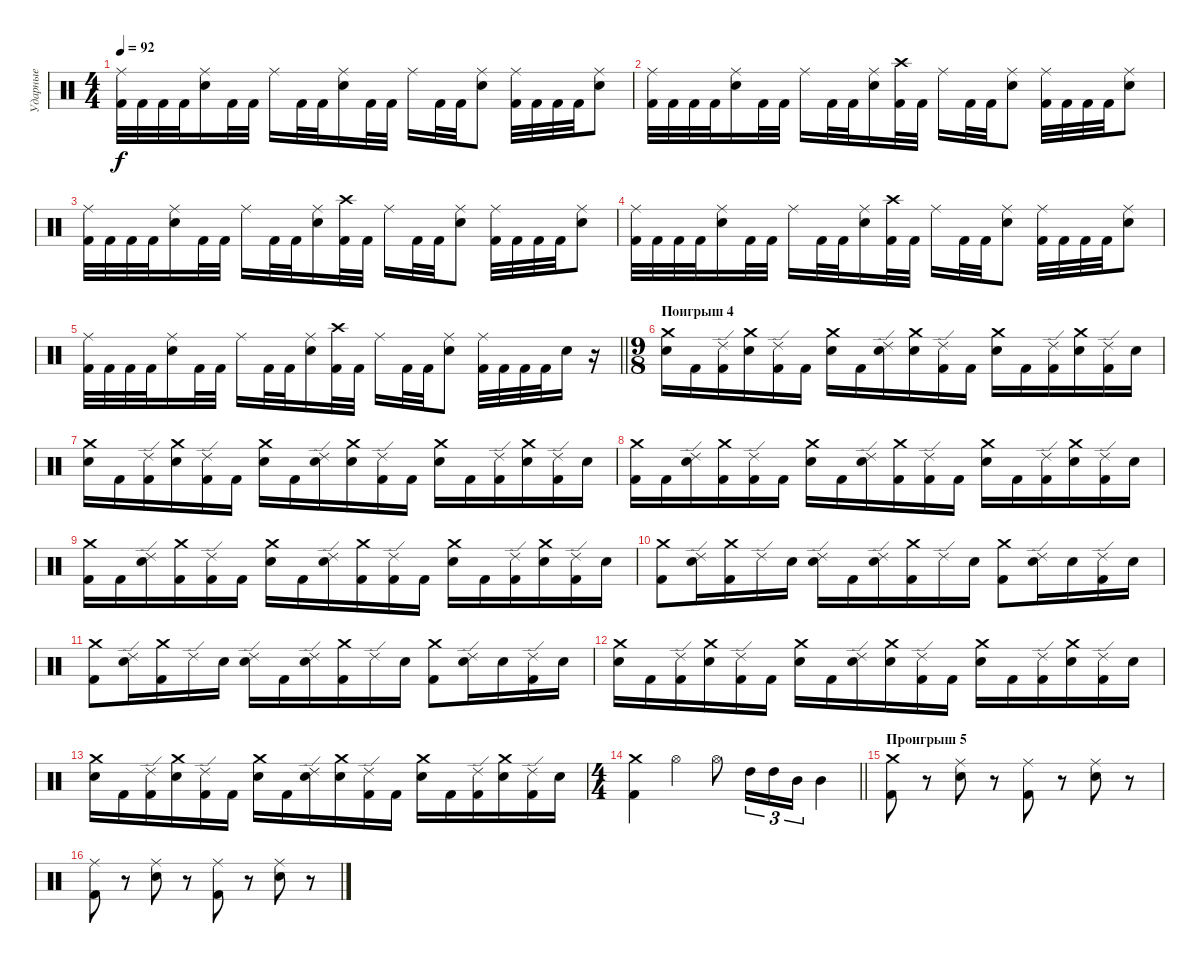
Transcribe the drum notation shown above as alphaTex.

\track ("Ударные" "Ударные") {instrument percussion}
\staff {score}
\articulation defaults
\ts (4 4)
\tempo 92
\clef neutral
\ks c
("Ride (middle)" "Kick (hit) 2").32{dy f} "Kick (hit) 2".32 "Kick (hit) 2".32 "Kick (hit) 2".32 ("Ride (middle)" "Electric Snare (hit)").16 "Kick (hit) 2".32 "Kick (hit) 2".32 "Ride (middle)".16 "Kick (hit) 2".32 "Kick (hit) 2".32 ("Electric Snare (hit)" "Ride (middle)").16 "Kick (hit) 2".32 "Kick (hit) 2".32 "Ride (middle)".16 "Kick (hit) 2".32 "Kick (hit) 2".32 ("Electric Snare (hit)" "Ride (middle)").8 ("Kick (hit) 2" "Ride (middle)").32 "Kick (hit) 2".32 "Kick (hit) 2".32 "Kick (hit) 2".32 ("Electric Snare (hit)" "Ride (middle)").8 |
("Ride (middle)" "Kick (hit) 2").32 "Kick (hit) 2".32 "Kick (hit) 2".32 "Kick (hit) 2".32 ("Ride (middle)" "Electric Snare (hit)").16 "Kick (hit) 2".32 "Kick (hit) 2".32 "Ride (middle)".16 "Kick (hit) 2".32 "Kick (hit) 2".32 ("Electric Snare (hit)" "Ride (middle)").16 ("Crash high (hit)" "Kick (hit) 2").32 "Kick (hit) 2".32 "Ride (middle)".16 "Kick (hit) 2".32 "Kick (hit) 2".32 ("Electric Snare (hit)" "Ride (middle)").8 ("Kick (hit) 2" "Ride (middle)").32 "Kick (hit) 2".32 "Kick (hit) 2".32 "Kick (hit) 2".32 ("Electric Snare (hit)" "Ride (middle)").8 |
("Ride (middle)" "Kick (hit) 2").32 "Kick (hit) 2".32 "Kick (hit) 2".32 "Kick (hit) 2".32 ("Ride (middle)" "Electric Snare (hit)").16 "Kick (hit) 2".32 "Kick (hit) 2".32 "Ride (middle)".16 "Kick (hit) 2".32 "Kick (hit) 2".32 ("Electric Snare (hit)" "Ride (middle)").16 ("Crash high (hit)" "Kick (hit) 2").32 "Kick (hit) 2".32 "Ride (middle)".16 "Kick (hit) 2".32 "Kick (hit) 2".32 ("Electric Snare (hit)" "Ride (middle)").8 ("Kick (hit) 2" "Ride (middle)").32 "Kick (hit) 2".32 "Kick (hit) 2".32 "Kick (hit) 2".32 ("Electric Snare (hit)" "Ride (middle)").8 |
("Ride (middle)" "Kick (hit) 2").32 "Kick (hit) 2".32 "Kick (hit) 2".32 "Kick (hit) 2".32 ("Ride (middle)" "Electric Snare (hit)").16 "Kick (hit) 2".32 "Kick (hit) 2".32 "Ride (middle)".16 "Kick (hit) 2".32 "Kick (hit) 2".32 ("Electric Snare (hit)" "Ride (middle)").16 ("Crash high (hit)" "Kick (hit) 2").32 "Kick (hit) 2".32 "Ride (middle)".16 "Kick (hit) 2".32 "Kick (hit) 2".32 ("Electric Snare (hit)" "Ride (middle)").8 ("Kick (hit) 2" "Ride (middle)").32 "Kick (hit) 2".32 "Kick (hit) 2".32 "Kick (hit) 2".32 ("Electric Snare (hit)" "Ride (middle)").8 |
\barLineRight lightlight
("Ride (middle)" "Kick (hit) 2").32 "Kick (hit) 2".32 "Kick (hit) 2".32 "Kick (hit) 2".32 ("Ride (middle)" "Electric Snare (hit)").16 "Kick (hit) 2".32 "Kick (hit) 2".32 "Ride (middle)".16 "Kick (hit) 2".32 "Kick (hit) 2".32 ("Electric Snare (hit)" "Ride (middle)").16 ("Crash high (hit)" "Kick (hit) 2").32 "Kick (hit) 2".32 "Ride (middle)".16 "Kick (hit) 2".32 "Kick (hit) 2".32 ("Electric Snare (hit)" "Ride (middle)").8 ("Kick (hit) 2" "Ride (middle)").32 "Kick (hit) 2".32 "Kick (hit) 2".32 "Kick (hit) 2".32 "Electric Snare (hit)".16 r.16 |
\ts (9 8)
\section ("" "Поигрыш 4")
("Crash medium (hit)" "Electric Snare (hit)").16 "Kick (hit) 2".16 ("Ride (edge) 2" "Kick (hit) 2").16 ("Crash medium (hit)" "Electric Snare (hit)").16 ("Ride (edge) 2" "Kick (hit) 2").16 "Kick (hit) 2".16 ("Crash medium (hit)" "Electric Snare (hit)").16 "Kick (hit) 2".16 ("Ride (edge) 2" "Electric Snare (hit)").16 ("Crash medium (hit)" "Electric Snare (hit)").16 ("Ride (edge) 2" "Kick (hit) 2").16 "Kick (hit) 2".16 ("Crash medium (hit)" "Electric Snare (hit)").16 "Kick (hit) 2".16 ("Ride (edge) 2" "Kick (hit) 2").16 ("Crash medium (hit)" "Electric Snare (hit)").16 ("Ride (edge) 2" "Kick (hit) 2").16 "Electric Snare (hit)".16 |
("Crash medium (hit)" "Electric Snare (hit)").16 "Kick (hit) 2".16 ("Ride (edge) 2" "Kick (hit) 2").16 ("Crash medium (hit)" "Electric Snare (hit)").16 ("Ride (edge) 2" "Kick (hit) 2").16 "Kick (hit) 2".16 ("Crash medium (hit)" "Electric Snare (hit)").16 "Kick (hit) 2".16 ("Ride (edge) 2" "Electric Snare (hit)").16 ("Crash medium (hit)" "Electric Snare (hit)").16 ("Ride (edge) 2" "Kick (hit) 2").16 "Kick (hit) 2".16 ("Crash medium (hit)" "Electric Snare (hit)").16 "Kick (hit) 2".16 ("Ride (edge) 2" "Kick (hit) 2").16 ("Crash medium (hit)" "Electric Snare (hit)").16 ("Ride (edge) 2" "Kick (hit) 2").16 "Electric Snare (hit)".16 |
("Kick (hit) 2" "Crash medium (hit)").16 "Kick (hit) 2".16 ("Electric Snare (hit)" "Ride (edge) 2").16 ("Kick (hit) 2" "Crash medium (hit)").16 ("Kick (hit) 2" "Ride (edge) 2").16 "Kick (hit) 2".16 ("Electric Snare (hit)" "Crash medium (hit)").16 "Kick (hit) 2".16 ("Electric Snare (hit)" "Ride (edge) 2").16 ("Kick (hit) 2" "Crash medium (hit)").16 ("Kick (hit) 2" "Ride (edge) 2").16 "Kick (hit) 2".16 ("Electric Snare (hit)" "Crash medium (hit)").16 "Kick (hit) 2".16 ("Kick (hit) 2" "Ride (edge) 2").16 ("Electric Snare (hit)" "Crash medium (hit)").16 ("Kick (hit) 2" "Ride (edge) 2").16 "Electric Snare (hit)".16 |
("Kick (hit) 2" "Crash medium (hit)").16 "Kick (hit) 2".16 ("Electric Snare (hit)" "Ride (edge) 2").16 ("Kick (hit) 2" "Crash medium (hit)").16 ("Kick (hit) 2" "Ride (edge) 2").16 "Kick (hit) 2".16 ("Electric Snare (hit)" "Crash medium (hit)").16 "Kick (hit) 2".16 ("Electric Snare (hit)" "Ride (edge) 2").16 ("Kick (hit) 2" "Crash medium (hit)").16 ("Kick (hit) 2" "Ride (edge) 2").16 "Kick (hit) 2".16 ("Electric Snare (hit)" "Crash medium (hit)").16 "Kick (hit) 2".16 ("Kick (hit) 2" "Ride (edge) 2").16 ("Electric Snare (hit)" "Crash medium (hit)").16 ("Kick (hit) 2" "Ride (edge) 2").16 "Electric Snare (hit)".16 |
("Crash medium (hit)" "Kick (hit) 2").8 ("Ride (edge) 2" "Electric Snare (hit)").16 ("Crash medium (hit)" "Kick (hit) 2").16 "Ride (edge) 2".16 "Electric Snare (hit)".16 ("Ride (edge) 2" "Electric Snare (hit)").16 "Kick (hit) 2".16 ("Ride (edge) 2" "Electric Snare (hit)").16 ("Crash medium (hit)" "Kick (hit) 2").16 "Ride (edge) 2".16 "Electric Snare (hit)".16 ("Crash medium (hit)" "Kick (hit) 2").8 ("Ride (edge) 2" "Electric Snare (hit)").16 "Electric Snare (hit)".16 ("Ride (edge) 2" "Kick (hit) 2").16 "Electric Snare (hit)".16 |
("Crash medium (hit)" "Kick (hit) 2").8 ("Ride (edge) 2" "Electric Snare (hit)").16 ("Crash medium (hit)" "Kick (hit) 2").16 "Ride (edge) 2".16 "Electric Snare (hit)".16 ("Ride (edge) 2" "Electric Snare (hit)").16 "Kick (hit) 2".16 ("Ride (edge) 2" "Electric Snare (hit)").16 ("Crash medium (hit)" "Kick (hit) 2").16 "Ride (edge) 2".16 "Electric Snare (hit)".16 ("Crash medium (hit)" "Kick (hit) 2").8 ("Ride (edge) 2" "Electric Snare (hit)").16 "Electric Snare (hit)".16 ("Ride (edge) 2" "Kick (hit) 2").16 "Electric Snare (hit)".16 |
("Crash medium (hit)" "Electric Snare (hit)").16 "Kick (hit) 2".16 ("Ride (edge) 2" "Kick (hit) 2").16 ("Crash medium (hit)" "Electric Snare (hit)").16 ("Ride (edge) 2" "Kick (hit) 2").16 "Kick (hit) 2".16 ("Crash medium (hit)" "Electric Snare (hit)").16 "Kick (hit) 2".16 ("Ride (edge) 2" "Electric Snare (hit)").16 ("Crash medium (hit)" "Electric Snare (hit)").16 ("Ride (edge) 2" "Kick (hit) 2").16 "Kick (hit) 2".16 ("Crash medium (hit)" "Electric Snare (hit)").16 "Kick (hit) 2".16 ("Ride (edge) 2" "Kick (hit) 2").16 ("Crash medium (hit)" "Electric Snare (hit)").16 ("Ride (edge) 2" "Kick (hit) 2").16 "Electric Snare (hit)".16 |
("Crash medium (hit)" "Electric Snare (hit)").16 "Kick (hit) 2".16 ("Ride (edge) 2" "Kick (hit) 2").16 ("Crash medium (hit)" "Electric Snare (hit)").16 ("Ride (edge) 2" "Kick (hit) 2").16 "Kick (hit) 2".16 ("Crash medium (hit)" "Electric Snare (hit)").16 "Kick (hit) 2".16 ("Ride (edge) 2" "Electric Snare (hit)").16 ("Crash medium (hit)" "Electric Snare (hit)").16 ("Ride (edge) 2" "Kick (hit) 2").16 "Kick (hit) 2".16 ("Crash medium (hit)" "Electric Snare (hit)").16 "Kick (hit) 2".16 ("Ride (edge) 2" "Kick (hit) 2").16 ("Crash medium (hit)" "Electric Snare (hit)").16 ("Ride (edge) 2" "Kick (hit) 2").16 "Electric Snare (hit)".16 |
\ts (4 4)
\barLineRight lightlight
("Kick (hit) 2" "Crash medium (hit)").4 "Hi-Hat (open)".4 "Hi-Hat (open)".8 "High Tom (hit)".16{tu (3 2)} "High Tom (hit)".16{tu (3 2)} "Mid Tom (hit)".16{tu (3 2)} "Mid Tom (hit)".4 |
\section ("" "Проигрыш 5")
("Crash medium (hit)" "Kick (hit) 2").8 r.8 ("Ride (middle)" "Electric Snare (hit)").8 r.8 ("Ride (middle)" "Kick (hit) 2").8 r.8 ("Ride (middle)" "Electric Snare (hit)").8 r.8 |
("Ride (middle)" "Kick (hit) 2").8 r.8 ("Ride (middle)" "Electric Snare (hit)").8 r.8 ("Ride (middle)" "Kick (hit) 2").8 r.8 ("Ride (middle)" "Electric Snare (hit)").8 r.8
